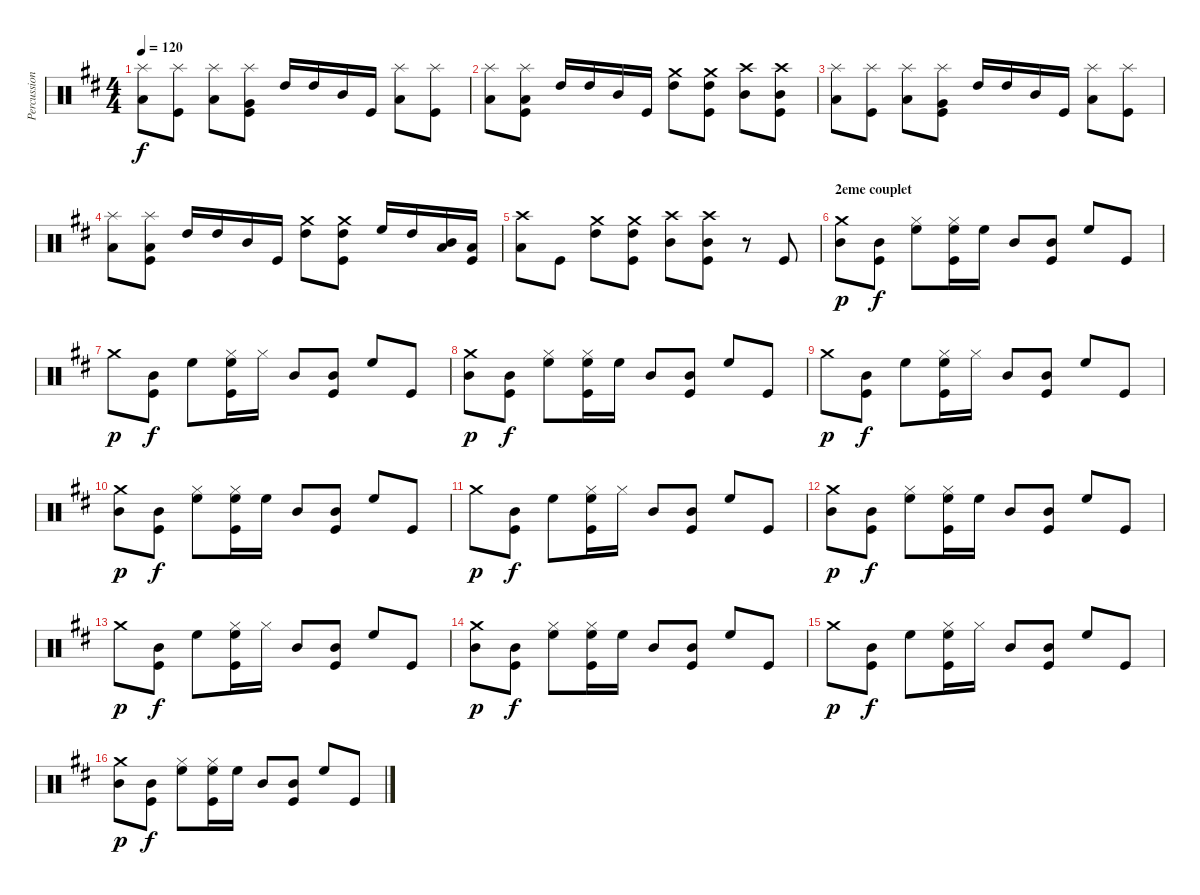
\track ("Percussions" "Percussion") {instrument percussion}
\staff {score}
\articulation defaults
\ts (4 4)
\tempo 120
\clef neutral
\ks d
("Splash (hit)" "Low Floor Tom (hit)").8{dy f} ("Splash (hit)" "Kick (hit)").8 ("Splash (hit)" "Low Floor Tom (hit)").8 ("Splash (hit)" "Very Low Tom (hit)" "Kick (hit)").8 "High Tom (hit)".16 "High Tom (hit)".16 "Mid Tom (hit)".16 "Kick (hit)".16 ("Splash (hit)" "Low Floor Tom (hit)").8 ("Splash (hit)" "Kick (hit)").8 |
("Splash (hit)" "Low Floor Tom (hit)").8 ("Splash (hit)" "Low Tom (hit)" "Kick (hit)").8 "High Tom (hit)".16 "High Tom (hit)".16 "Mid Tom (hit)".16 "Kick (hit)".16 ("Crash medium (hit)" "High Tom (hit)").8 ("Crash medium (hit)" "High Tom (hit)" "Kick (hit)").8 ("Crash high (hit)" "Mid Tom (hit)").8 ("Crash high (hit)" "Mid Tom (hit)" "Kick (hit)").8 |
("Splash (hit)" "Low Floor Tom (hit)").8 ("Splash (hit)" "Kick (hit)").8 ("Splash (hit)" "Low Floor Tom (hit)").8 ("Splash (hit)" "Very Low Tom (hit)" "Kick (hit)").8 "High Tom (hit)".16 "High Tom (hit)".16 "Mid Tom (hit)".16 "Kick (hit)".16 ("Splash (hit)" "Low Floor Tom (hit)").8 ("Splash (hit)" "Kick (hit)").8 |
("Splash (hit)" "Low Floor Tom (hit)").8 ("Splash (hit)" "Low Tom (hit)" "Kick (hit)").8 "High Tom (hit)".16 "High Tom (hit)".16 "Mid Tom (hit)".16 "Kick (hit)".16 ("Crash medium (hit)" "High Tom (hit)").8 ("Crash medium (hit)" "High Tom (hit)" "Kick (hit)").8 "High Floor Tom (hit)".16 "High Tom (hit)".16 ("Low Floor Tom (hit)" "Mid Tom (hit)").16 ("Low Tom (hit)" "Kick (hit)").16 |
("Crash high (hit)" "Low Floor Tom (hit)").8 "Kick (hit)".8 ("Crash medium (hit)" "High Tom (hit)").8 ("Crash medium (hit)" "High Tom (hit)" "Kick (hit)").8 ("Crash high (hit)" "Mid Tom (hit)").8 ("Crash high (hit)" "Mid Tom (hit)" "Kick (hit)").8 r.8 "Kick (hit)".8 |
\section ("" "2eme couplet")
("Crash medium (hit)" "Mid Tom (hit)").8{dy p} ("Mid Tom (hit)" "Kick (hit)").8{dy f} ("Hi-Hat (closed)" "High Floor Tom (hit)").8 ("Hi-Hat (closed)" "High Floor Tom (hit)" "Kick (hit)").16 "High Floor Tom (hit)".16 "Mid Tom (hit)".8 ("Mid Tom (hit)" "Kick (hit)").8 "High Floor Tom (hit)".8 "Kick (hit)".8 |
"Crash medium (hit)".8{dy p} ("Mid Tom (hit)" "Kick (hit)").8{dy f} "High Floor Tom (hit)".8 ("Hi-Hat (closed)" "High Floor Tom (hit)" "Kick (hit)").16 "Hi-Hat (closed)".16 "Mid Tom (hit)".8 ("Mid Tom (hit)" "Kick (hit)").8 "High Floor Tom (hit)".8 "Kick (hit)".8 |
("Crash medium (hit)" "Mid Tom (hit)").8{dy p} ("Mid Tom (hit)" "Kick (hit)").8{dy f} ("Hi-Hat (closed)" "High Floor Tom (hit)").8 ("Hi-Hat (closed)" "High Floor Tom (hit)" "Kick (hit)").16 "High Floor Tom (hit)".16 "Mid Tom (hit)".8 ("Mid Tom (hit)" "Kick (hit)").8 "High Floor Tom (hit)".8 "Kick (hit)".8 |
"Crash medium (hit)".8{dy p} ("Mid Tom (hit)" "Kick (hit)").8{dy f} "High Floor Tom (hit)".8 ("Hi-Hat (closed)" "High Floor Tom (hit)" "Kick (hit)").16 "Hi-Hat (closed)".16 "Mid Tom (hit)".8 ("Mid Tom (hit)" "Kick (hit)").8 "High Floor Tom (hit)".8 "Kick (hit)".8 |
("Crash medium (hit)" "Mid Tom (hit)").8{dy p} ("Mid Tom (hit)" "Kick (hit)").8{dy f} ("Hi-Hat (closed)" "High Floor Tom (hit)").8 ("Hi-Hat (closed)" "High Floor Tom (hit)" "Kick (hit)").16 "High Floor Tom (hit)".16 "Mid Tom (hit)".8 ("Mid Tom (hit)" "Kick (hit)").8 "High Floor Tom (hit)".8 "Kick (hit)".8 |
"Crash medium (hit)".8{dy p} ("Mid Tom (hit)" "Kick (hit)").8{dy f} "High Floor Tom (hit)".8 ("Hi-Hat (closed)" "High Floor Tom (hit)" "Kick (hit)").16 "Hi-Hat (closed)".16 "Mid Tom (hit)".8 ("Mid Tom (hit)" "Kick (hit)").8 "High Floor Tom (hit)".8 "Kick (hit)".8 |
("Crash medium (hit)" "Mid Tom (hit)").8{dy p} ("Mid Tom (hit)" "Kick (hit)").8{dy f} ("Hi-Hat (closed)" "High Floor Tom (hit)").8 ("Hi-Hat (closed)" "High Floor Tom (hit)" "Kick (hit)").16 "High Floor Tom (hit)".16 "Mid Tom (hit)".8 ("Mid Tom (hit)" "Kick (hit)").8 "High Floor Tom (hit)".8 "Kick (hit)".8 |
"Crash medium (hit)".8{dy p} ("Mid Tom (hit)" "Kick (hit)").8{dy f} "High Floor Tom (hit)".8 ("Hi-Hat (closed)" "High Floor Tom (hit)" "Kick (hit)").16 "Hi-Hat (closed)".16 "Mid Tom (hit)".8 ("Mid Tom (hit)" "Kick (hit)").8 "High Floor Tom (hit)".8 "Kick (hit)".8 |
("Crash medium (hit)" "Mid Tom (hit)").8{dy p} ("Mid Tom (hit)" "Kick (hit)").8{dy f} ("Hi-Hat (closed)" "High Floor Tom (hit)").8 ("Hi-Hat (closed)" "High Floor Tom (hit)" "Kick (hit)").16 "High Floor Tom (hit)".16 "Mid Tom (hit)".8 ("Mid Tom (hit)" "Kick (hit)").8 "High Floor Tom (hit)".8 "Kick (hit)".8 |
"Crash medium (hit)".8{dy p} ("Mid Tom (hit)" "Kick (hit)").8{dy f} "High Floor Tom (hit)".8 ("Hi-Hat (closed)" "High Floor Tom (hit)" "Kick (hit)").16 "Hi-Hat (closed)".16 "Mid Tom (hit)".8 ("Mid Tom (hit)" "Kick (hit)").8 "High Floor Tom (hit)".8 "Kick (hit)".8 |
("Crash medium (hit)" "Mid Tom (hit)").8{dy p} ("Mid Tom (hit)" "Kick (hit)").8{dy f} ("Hi-Hat (closed)" "High Floor Tom (hit)").8 ("Hi-Hat (closed)" "High Floor Tom (hit)" "Kick (hit)").16 "High Floor Tom (hit)".16 "Mid Tom (hit)".8 ("Mid Tom (hit)" "Kick (hit)").8 "High Floor Tom (hit)".8 "Kick (hit)".8
